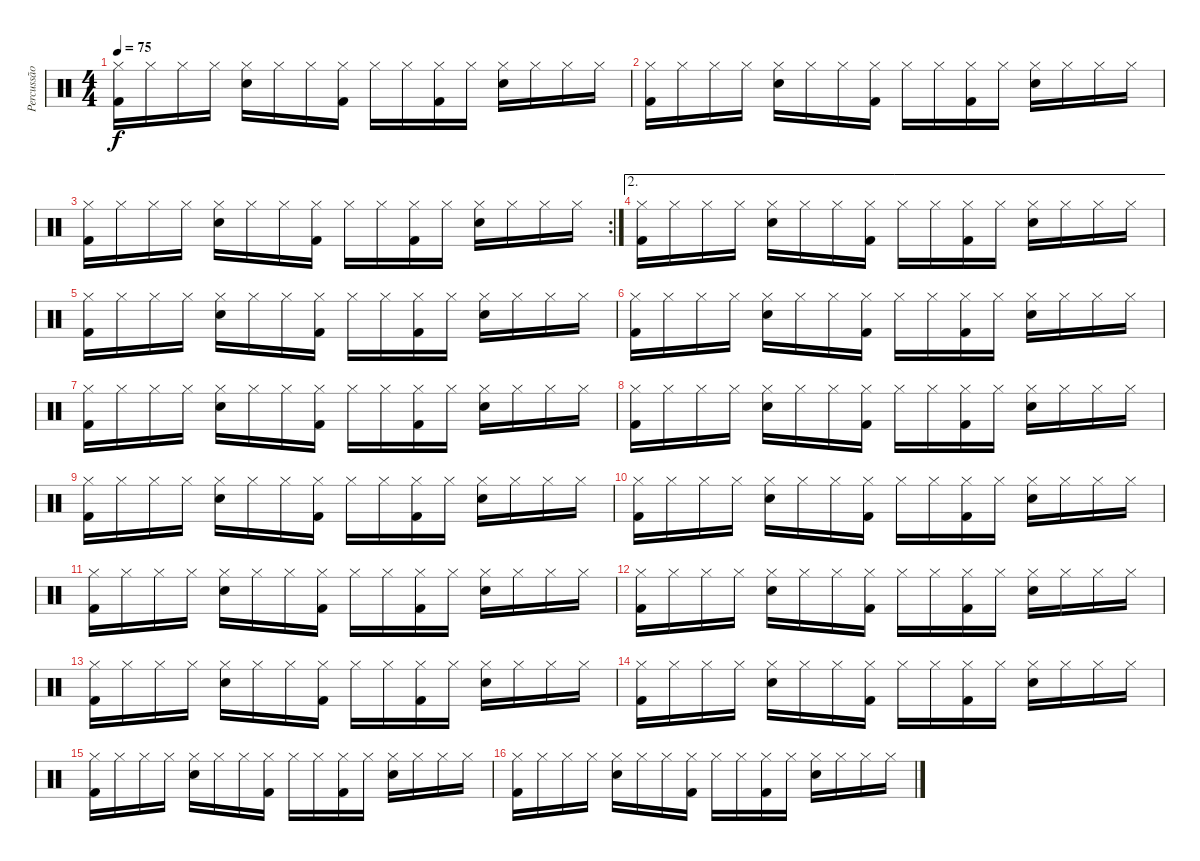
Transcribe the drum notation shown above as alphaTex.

\track ("Percussão" "Percussão") {instrument percussion}
\staff {score}
\articulation defaults
\ts (4 4)
\tempo 75
\clef neutral
\ks c
("Hi-Hat (closed)" "Kick (hit) 2").16{dy f} "Hi-Hat (closed)".16 "Hi-Hat (closed)".16 "Hi-Hat (closed)".16 ("Hi-Hat (closed)" "Electric Snare (hit)").16 "Hi-Hat (closed)".16 "Hi-Hat (closed)".16 ("Hi-Hat (closed)" "Kick (hit) 2").16 "Hi-Hat (closed)".16 "Hi-Hat (closed)".16 ("Hi-Hat (closed)" "Kick (hit) 2").16 "Hi-Hat (closed)".16 ("Hi-Hat (closed)" "Electric Snare (hit)").16 "Hi-Hat (closed)".16 "Hi-Hat (closed)".16 "Hi-Hat (closed)".16 |
("Hi-Hat (closed)" "Kick (hit) 2").16 "Hi-Hat (closed)".16 "Hi-Hat (closed)".16 "Hi-Hat (closed)".16 ("Hi-Hat (closed)" "Electric Snare (hit)").16 "Hi-Hat (closed)".16 "Hi-Hat (closed)".16 ("Hi-Hat (closed)" "Kick (hit) 2").16 "Hi-Hat (closed)".16 "Hi-Hat (closed)".16 ("Hi-Hat (closed)" "Kick (hit) 2").16 "Hi-Hat (closed)".16 ("Hi-Hat (closed)" "Electric Snare (hit)").16 "Hi-Hat (closed)".16 "Hi-Hat (closed)".16 "Hi-Hat (closed)".16 |
\rc 2
("Hi-Hat (closed)" "Kick (hit) 2").16 "Hi-Hat (closed)".16 "Hi-Hat (closed)".16 "Hi-Hat (closed)".16 ("Hi-Hat (closed)" "Electric Snare (hit)").16 "Hi-Hat (closed)".16 "Hi-Hat (closed)".16 ("Hi-Hat (closed)" "Kick (hit) 2").16 "Hi-Hat (closed)".16 "Hi-Hat (closed)".16 ("Hi-Hat (closed)" "Kick (hit) 2").16 "Hi-Hat (closed)".16 ("Hi-Hat (closed)" "Electric Snare (hit)").16 "Hi-Hat (closed)".16 "Hi-Hat (closed)".16 "Hi-Hat (closed)".16 |
\ae 2
("Hi-Hat (closed)" "Kick (hit) 2").16 "Hi-Hat (closed)".16 "Hi-Hat (closed)".16 "Hi-Hat (closed)".16 ("Hi-Hat (closed)" "Electric Snare (hit)").16 "Hi-Hat (closed)".16 "Hi-Hat (closed)".16 ("Hi-Hat (closed)" "Kick (hit) 2").16 "Hi-Hat (closed)".16 "Hi-Hat (closed)".16 ("Hi-Hat (closed)" "Kick (hit) 2").16 "Hi-Hat (closed)".16 ("Hi-Hat (closed)" "Electric Snare (hit)").16 "Hi-Hat (closed)".16 "Hi-Hat (closed)".16 "Hi-Hat (closed)".16 |
("Hi-Hat (closed)" "Kick (hit) 2").16 "Hi-Hat (closed)".16 "Hi-Hat (closed)".16 "Hi-Hat (closed)".16 ("Hi-Hat (closed)" "Electric Snare (hit)").16 "Hi-Hat (closed)".16 "Hi-Hat (closed)".16 ("Hi-Hat (closed)" "Kick (hit) 2").16 "Hi-Hat (closed)".16 "Hi-Hat (closed)".16 ("Hi-Hat (closed)" "Kick (hit) 2").16 "Hi-Hat (closed)".16 ("Hi-Hat (closed)" "Electric Snare (hit)").16 "Hi-Hat (closed)".16 "Hi-Hat (closed)".16 "Hi-Hat (closed)".16 |
("Hi-Hat (closed)" "Kick (hit) 2").16 "Hi-Hat (closed)".16 "Hi-Hat (closed)".16 "Hi-Hat (closed)".16 ("Hi-Hat (closed)" "Electric Snare (hit)").16 "Hi-Hat (closed)".16 "Hi-Hat (closed)".16 ("Hi-Hat (closed)" "Kick (hit) 2").16 "Hi-Hat (closed)".16 "Hi-Hat (closed)".16 ("Hi-Hat (closed)" "Kick (hit) 2").16 "Hi-Hat (closed)".16 ("Hi-Hat (closed)" "Electric Snare (hit)").16 "Hi-Hat (closed)".16 "Hi-Hat (closed)".16 "Hi-Hat (closed)".16 |
("Hi-Hat (closed)" "Kick (hit) 2").16 "Hi-Hat (closed)".16 "Hi-Hat (closed)".16 "Hi-Hat (closed)".16 ("Hi-Hat (closed)" "Electric Snare (hit)").16 "Hi-Hat (closed)".16 "Hi-Hat (closed)".16 ("Hi-Hat (closed)" "Kick (hit) 2").16 "Hi-Hat (closed)".16 "Hi-Hat (closed)".16 ("Hi-Hat (closed)" "Kick (hit) 2").16 "Hi-Hat (closed)".16 ("Hi-Hat (closed)" "Electric Snare (hit)").16 "Hi-Hat (closed)".16 "Hi-Hat (closed)".16 "Hi-Hat (closed)".16 |
("Hi-Hat (closed)" "Kick (hit) 2").16 "Hi-Hat (closed)".16 "Hi-Hat (closed)".16 "Hi-Hat (closed)".16 ("Hi-Hat (closed)" "Electric Snare (hit)").16 "Hi-Hat (closed)".16 "Hi-Hat (closed)".16 ("Hi-Hat (closed)" "Kick (hit) 2").16 "Hi-Hat (closed)".16 "Hi-Hat (closed)".16 ("Hi-Hat (closed)" "Kick (hit) 2").16 "Hi-Hat (closed)".16 ("Hi-Hat (closed)" "Electric Snare (hit)").16 "Hi-Hat (closed)".16 "Hi-Hat (closed)".16 "Hi-Hat (closed)".16 |
("Hi-Hat (closed)" "Kick (hit) 2").16 "Hi-Hat (closed)".16 "Hi-Hat (closed)".16 "Hi-Hat (closed)".16 ("Hi-Hat (closed)" "Electric Snare (hit)").16 "Hi-Hat (closed)".16 "Hi-Hat (closed)".16 ("Hi-Hat (closed)" "Kick (hit) 2").16 "Hi-Hat (closed)".16 "Hi-Hat (closed)".16 ("Hi-Hat (closed)" "Kick (hit) 2").16 "Hi-Hat (closed)".16 ("Hi-Hat (closed)" "Electric Snare (hit)").16 "Hi-Hat (closed)".16 "Hi-Hat (closed)".16 "Hi-Hat (closed)".16 |
("Hi-Hat (closed)" "Kick (hit) 2").16 "Hi-Hat (closed)".16 "Hi-Hat (closed)".16 "Hi-Hat (closed)".16 ("Hi-Hat (closed)" "Electric Snare (hit)").16 "Hi-Hat (closed)".16 "Hi-Hat (closed)".16 ("Hi-Hat (closed)" "Kick (hit) 2").16 "Hi-Hat (closed)".16 "Hi-Hat (closed)".16 ("Hi-Hat (closed)" "Kick (hit) 2").16 "Hi-Hat (closed)".16 ("Hi-Hat (closed)" "Electric Snare (hit)").16 "Hi-Hat (closed)".16 "Hi-Hat (closed)".16 "Hi-Hat (closed)".16 |
("Hi-Hat (closed)" "Kick (hit) 2").16 "Hi-Hat (closed)".16 "Hi-Hat (closed)".16 "Hi-Hat (closed)".16 ("Hi-Hat (closed)" "Electric Snare (hit)").16 "Hi-Hat (closed)".16 "Hi-Hat (closed)".16 ("Hi-Hat (closed)" "Kick (hit) 2").16 "Hi-Hat (closed)".16 "Hi-Hat (closed)".16 ("Hi-Hat (closed)" "Kick (hit) 2").16 "Hi-Hat (closed)".16 ("Hi-Hat (closed)" "Electric Snare (hit)").16 "Hi-Hat (closed)".16 "Hi-Hat (closed)".16 "Hi-Hat (closed)".16 |
("Hi-Hat (closed)" "Kick (hit) 2").16 "Hi-Hat (closed)".16 "Hi-Hat (closed)".16 "Hi-Hat (closed)".16 ("Hi-Hat (closed)" "Electric Snare (hit)").16 "Hi-Hat (closed)".16 "Hi-Hat (closed)".16 ("Hi-Hat (closed)" "Kick (hit) 2").16 "Hi-Hat (closed)".16 "Hi-Hat (closed)".16 ("Hi-Hat (closed)" "Kick (hit) 2").16 "Hi-Hat (closed)".16 ("Hi-Hat (closed)" "Electric Snare (hit)").16 "Hi-Hat (closed)".16 "Hi-Hat (closed)".16 "Hi-Hat (closed)".16 |
("Hi-Hat (closed)" "Kick (hit) 2").16 "Hi-Hat (closed)".16 "Hi-Hat (closed)".16 "Hi-Hat (closed)".16 ("Hi-Hat (closed)" "Electric Snare (hit)").16 "Hi-Hat (closed)".16 "Hi-Hat (closed)".16 ("Hi-Hat (closed)" "Kick (hit) 2").16 "Hi-Hat (closed)".16 "Hi-Hat (closed)".16 ("Hi-Hat (closed)" "Kick (hit) 2").16 "Hi-Hat (closed)".16 ("Hi-Hat (closed)" "Electric Snare (hit)").16 "Hi-Hat (closed)".16 "Hi-Hat (closed)".16 "Hi-Hat (closed)".16 |
("Hi-Hat (closed)" "Kick (hit) 2").16 "Hi-Hat (closed)".16 "Hi-Hat (closed)".16 "Hi-Hat (closed)".16 ("Hi-Hat (closed)" "Electric Snare (hit)").16 "Hi-Hat (closed)".16 "Hi-Hat (closed)".16 ("Hi-Hat (closed)" "Kick (hit) 2").16 "Hi-Hat (closed)".16 "Hi-Hat (closed)".16 ("Hi-Hat (closed)" "Kick (hit) 2").16 "Hi-Hat (closed)".16 ("Hi-Hat (closed)" "Electric Snare (hit)").16 "Hi-Hat (closed)".16 "Hi-Hat (closed)".16 "Hi-Hat (closed)".16 |
("Hi-Hat (closed)" "Kick (hit) 2").16 "Hi-Hat (closed)".16 "Hi-Hat (closed)".16 "Hi-Hat (closed)".16 ("Hi-Hat (closed)" "Electric Snare (hit)").16 "Hi-Hat (closed)".16 "Hi-Hat (closed)".16 ("Hi-Hat (closed)" "Kick (hit) 2").16 "Hi-Hat (closed)".16 "Hi-Hat (closed)".16 ("Hi-Hat (closed)" "Kick (hit) 2").16 "Hi-Hat (closed)".16 ("Hi-Hat (closed)" "Electric Snare (hit)").16 "Hi-Hat (closed)".16 "Hi-Hat (closed)".16 "Hi-Hat (closed)".16 |
("Hi-Hat (closed)" "Kick (hit) 2").16 "Hi-Hat (closed)".16 "Hi-Hat (closed)".16 "Hi-Hat (closed)".16 ("Hi-Hat (closed)" "Electric Snare (hit)").16 "Hi-Hat (closed)".16 "Hi-Hat (closed)".16 ("Hi-Hat (closed)" "Kick (hit) 2").16 "Hi-Hat (closed)".16 "Hi-Hat (closed)".16 ("Hi-Hat (closed)" "Kick (hit) 2").16 "Hi-Hat (closed)".16 ("Hi-Hat (closed)" "Electric Snare (hit)").16 "Hi-Hat (closed)".16 "Hi-Hat (closed)".16 "Hi-Hat (closed)".16
